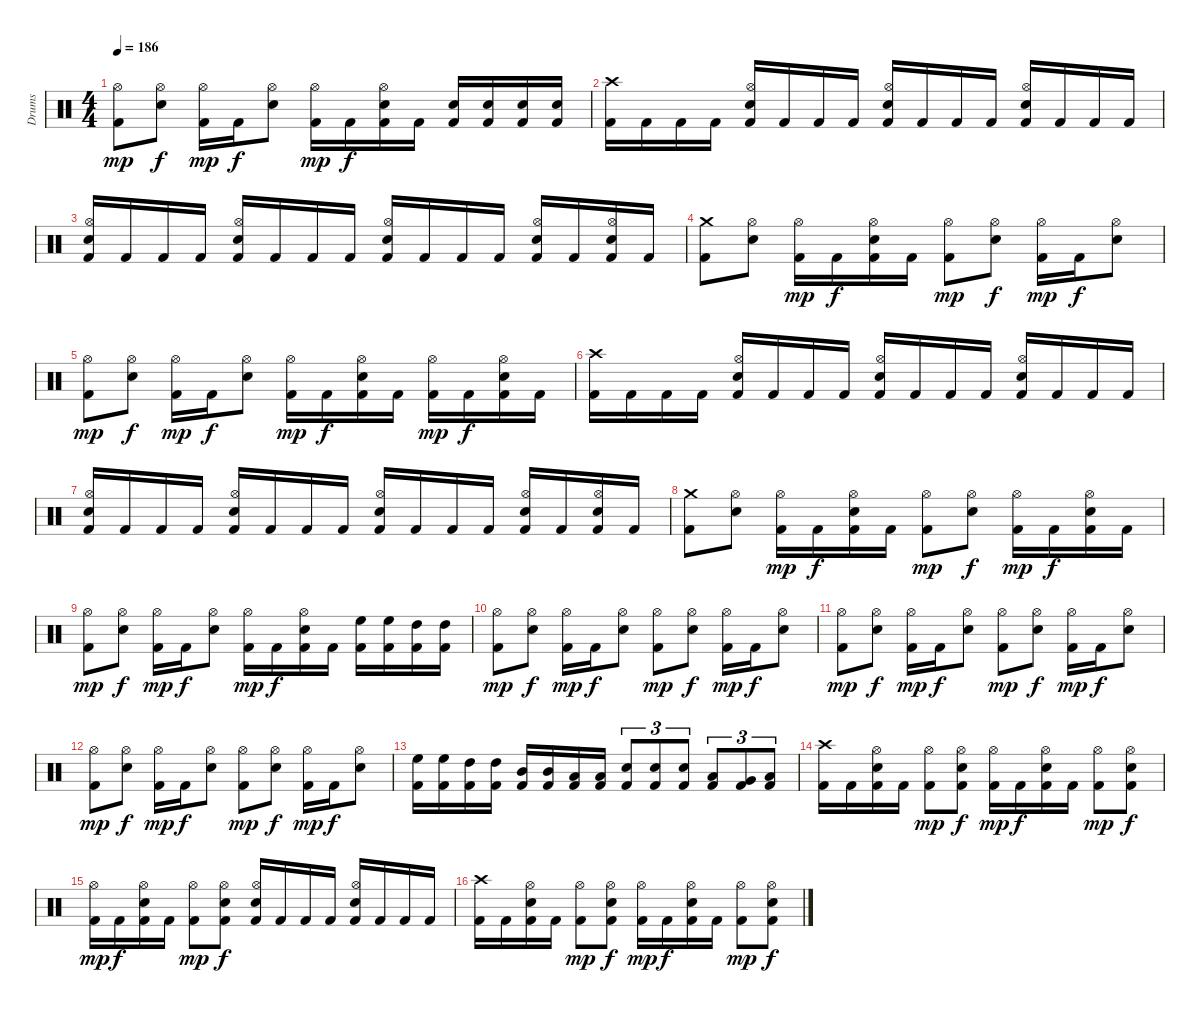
\track ("Drums" "Drums") {instrument percussion}
\staff {score}
\articulation defaults
\ts (4 4)
\tempo 186
\clef neutral
\ks c
("Kick (hit) 2" "Hi-Hat (open)").8{dy mp} ("Snare (hit) 2" "Hi-Hat (open)").8{dy f} ("Kick (hit) 2" "Hi-Hat (open)").16{dy mp} "Kick (hit) 2".16{dy f} ("Snare (hit) 2" "Hi-Hat (open)").8 ("Kick (hit) 2" "Hi-Hat (open)").16{dy mp} "Kick (hit) 2".16{dy f} ("Kick (hit) 2" "Snare (hit) 2" "Hi-Hat (open)").16 "Kick (hit) 2".16 ("Kick (hit) 2" "Snare (hit) 2").16 ("Kick (hit) 2" "Snare (hit) 2").16 ("Kick (hit) 2" "Snare (hit) 2").16 ("Kick (hit) 2" "Snare (hit) 2").16 |
\section ("" "")
("Kick (hit) 2" "Crash high (hit)").16 "Kick (hit) 2".16 "Kick (hit) 2".16 "Kick (hit) 2".16 ("Kick (hit) 2" "Snare (hit) 2" "Hi-Hat (open)").16 "Kick (hit) 2".16 "Kick (hit) 2".16 "Kick (hit) 2".16 ("Kick (hit) 2" "Snare (hit) 2" "Hi-Hat (open)").16 "Kick (hit) 2".16 "Kick (hit) 2".16 "Kick (hit) 2".16 ("Kick (hit) 2" "Snare (hit) 2" "Hi-Hat (open)").16 "Kick (hit) 2".16 "Kick (hit) 2".16 "Kick (hit) 2".16 |
("Kick (hit) 2" "Snare (hit) 2" "Hi-Hat (open)").16 "Kick (hit) 2".16 "Kick (hit) 2".16 "Kick (hit) 2".16 ("Kick (hit) 2" "Snare (hit) 2" "Hi-Hat (open)").16 "Kick (hit) 2".16 "Kick (hit) 2".16 "Kick (hit) 2".16 ("Kick (hit) 2" "Snare (hit) 2" "Hi-Hat (open)").16 "Kick (hit) 2".16 "Kick (hit) 2".16 "Kick (hit) 2".16 ("Kick (hit) 2" "Snare (hit) 2" "Hi-Hat (open)").16 "Kick (hit) 2".16 ("Kick (hit) 2" "Snare (hit) 2" "Hi-Hat (open)").16 "Kick (hit) 2".16 |
("Kick (hit) 2" "Crash medium (hit)").8 ("Snare (hit) 2" "Hi-Hat (open)").8 ("Kick (hit) 2" "Hi-Hat (open)").16{dy mp} "Kick (hit) 2".16{dy f} ("Kick (hit) 2" "Snare (hit) 2" "Hi-Hat (open)").16 "Kick (hit) 2".16 ("Kick (hit) 2" "Hi-Hat (open)").8{dy mp} ("Snare (hit) 2" "Hi-Hat (open)").8{dy f} ("Kick (hit) 2" "Hi-Hat (open)").16{dy mp} "Kick (hit) 2".16{dy f} ("Snare (hit) 2" "Hi-Hat (open)").8 |
("Kick (hit) 2" "Hi-Hat (open)").8{dy mp} ("Snare (hit) 2" "Hi-Hat (open)").8{dy f} ("Kick (hit) 2" "Hi-Hat (open)").16{dy mp} "Kick (hit) 2".16{dy f} ("Snare (hit) 2" "Hi-Hat (open)").8 ("Kick (hit) 2" "Hi-Hat (open)").16{dy mp} "Kick (hit) 2".16{dy f} ("Kick (hit) 2" "Snare (hit) 2" "Hi-Hat (open)").16 "Kick (hit) 2".16 ("Kick (hit) 2" "Hi-Hat (open)").16{dy mp} "Kick (hit) 2".16{dy f} ("Kick (hit) 2" "Snare (hit) 2" "Hi-Hat (open)").16 "Kick (hit) 2".16 |
\section ("" "")
("Kick (hit) 2" "Crash high (hit)").16 "Kick (hit) 2".16 "Kick (hit) 2".16 "Kick (hit) 2".16 ("Kick (hit) 2" "Snare (hit) 2" "Hi-Hat (open)").16 "Kick (hit) 2".16 "Kick (hit) 2".16 "Kick (hit) 2".16 ("Kick (hit) 2" "Snare (hit) 2" "Hi-Hat (open)").16 "Kick (hit) 2".16 "Kick (hit) 2".16 "Kick (hit) 2".16 ("Kick (hit) 2" "Snare (hit) 2" "Hi-Hat (open)").16 "Kick (hit) 2".16 "Kick (hit) 2".16 "Kick (hit) 2".16 |
("Kick (hit) 2" "Snare (hit) 2" "Hi-Hat (open)").16 "Kick (hit) 2".16 "Kick (hit) 2".16 "Kick (hit) 2".16 ("Kick (hit) 2" "Snare (hit) 2" "Hi-Hat (open)").16 "Kick (hit) 2".16 "Kick (hit) 2".16 "Kick (hit) 2".16 ("Kick (hit) 2" "Snare (hit) 2" "Hi-Hat (open)").16 "Kick (hit) 2".16 "Kick (hit) 2".16 "Kick (hit) 2".16 ("Kick (hit) 2" "Snare (hit) 2" "Hi-Hat (open)").16 "Kick (hit) 2".16 ("Kick (hit) 2" "Snare (hit) 2" "Hi-Hat (open)").16 "Kick (hit) 2".16 |
("Kick (hit) 2" "Crash medium (hit)").8 ("Snare (hit) 2" "Hi-Hat (open)").8 ("Kick (hit) 2" "Hi-Hat (open)").16{dy mp} "Kick (hit) 2".16{dy f} ("Kick (hit) 2" "Snare (hit) 2" "Hi-Hat (open)").16 "Kick (hit) 2".16 ("Kick (hit) 2" "Hi-Hat (open)").8{dy mp} ("Snare (hit) 2" "Hi-Hat (open)").8{dy f} ("Kick (hit) 2" "Hi-Hat (open)").16{dy mp} "Kick (hit) 2".16{dy f} ("Kick (hit) 2" "Snare (hit) 2" "Hi-Hat (open)").16 "Kick (hit) 2".16 |
("Kick (hit) 2" "Hi-Hat (open)").8{dy mp} ("Snare (hit) 2" "Hi-Hat (open)").8{dy f} ("Kick (hit) 2" "Hi-Hat (open)").16{dy mp} "Kick (hit) 2".16{dy f} ("Snare (hit) 2" "Hi-Hat (open)").8 ("Kick (hit) 2" "Hi-Hat (open)").16{dy mp} "Kick (hit) 2".16{dy f} ("Kick (hit) 2" "Snare (hit) 2" "Hi-Hat (open)").16 "Kick (hit) 2".16 ("Kick (hit) 2" "High Floor Tom (hit)").16 ("Kick (hit) 2" "High Floor Tom (hit)").16 ("Kick (hit) 2" "High Tom (hit)").16 ("Kick (hit) 2" "High Tom (hit)").16 |
\section ("" "")
("Kick (hit) 2" "Hi-Hat (open)").8{dy mp} ("Snare (hit) 2" "Hi-Hat (open)").8{dy f} ("Kick (hit) 2" "Hi-Hat (open)").16{dy mp} "Kick (hit) 2".16{dy f} ("Snare (hit) 2" "Hi-Hat (open)").8 ("Kick (hit) 2" "Hi-Hat (open)").8{dy mp} ("Snare (hit) 2" "Hi-Hat (open)").8{dy f} ("Kick (hit) 2" "Hi-Hat (open)").16{dy mp} "Kick (hit) 2".16{dy f} ("Snare (hit) 2" "Hi-Hat (open)").8 |
("Kick (hit) 2" "Hi-Hat (open)").8{dy mp} ("Snare (hit) 2" "Hi-Hat (open)").8{dy f} ("Kick (hit) 2" "Hi-Hat (open)").16{dy mp} "Kick (hit) 2".16{dy f} ("Snare (hit) 2" "Hi-Hat (open)").8 ("Kick (hit) 2" "Hi-Hat (open)").8{dy mp} ("Snare (hit) 2" "Hi-Hat (open)").8{dy f} ("Kick (hit) 2" "Hi-Hat (open)").16{dy mp} "Kick (hit) 2".16{dy f} ("Snare (hit) 2" "Hi-Hat (open)").8 |
("Kick (hit) 2" "Hi-Hat (open)").8{dy mp} ("Snare (hit) 2" "Hi-Hat (open)").8{dy f} ("Kick (hit) 2" "Hi-Hat (open)").16{dy mp} "Kick (hit) 2".16{dy f} ("Snare (hit) 2" "Hi-Hat (open)").8 ("Kick (hit) 2" "Hi-Hat (open)").8{dy mp} ("Snare (hit) 2" "Hi-Hat (open)").8{dy f} ("Kick (hit) 2" "Hi-Hat (open)").16{dy mp} "Kick (hit) 2".16{dy f} ("Snare (hit) 2" "Hi-Hat (open)").8 |
("Kick (hit) 2" "High Floor Tom (hit)").16 ("Kick (hit) 2" "High Floor Tom (hit)").16 ("Kick (hit) 2" "High Tom (hit)").16 ("Kick (hit) 2" "High Tom (hit)").16 ("Kick (hit) 2" "Mid Tom (hit)").16 ("Kick (hit) 2" "Mid Tom (hit)").16 ("Kick (hit) 2" "Low Tom (hit)").16 ("Kick (hit) 2" "Low Tom (hit)").16 ("Kick (hit) 2" "Snare (hit) 2").8{tu (3 2)} ("Kick (hit) 2" "Snare (hit) 2").8{tu (3 2)} ("Kick (hit) 2" "Snare (hit) 2").8{tu (3 2)} ("Kick (hit) 2" "Low Tom (hit)").8{tu (3 2)} ("Kick (hit) 2" "Very Low Tom (hit)").8{tu (3 2)} ("Kick (hit) 2" "Low Floor Tom (hit)").8{tu (3 2)} |
("Kick (hit) 2" "Crash high (hit)").16 "Kick (hit) 2".16 ("Kick (hit) 2" "Snare (hit) 2" "Hi-Hat (open)").16 "Kick (hit) 2".16 ("Kick (hit) 2" "Hi-Hat (open)").8{dy mp} ("Kick (hit) 2" "Snare (hit) 2" "Hi-Hat (open)").8{dy f} ("Kick (hit) 2" "Hi-Hat (open)").16{dy mp} "Kick (hit) 2".16{dy f} ("Kick (hit) 2" "Snare (hit) 2" "Hi-Hat (open)").16 "Kick (hit) 2".16 ("Kick (hit) 2" "Hi-Hat (open)").8{dy mp} ("Kick (hit) 2" "Snare (hit) 2" "Hi-Hat (open)").8{dy f} |
("Kick (hit) 2" "Hi-Hat (open)").16{dy mp} "Kick (hit) 2".16{dy f} ("Kick (hit) 2" "Snare (hit) 2" "Hi-Hat (open)").16 "Kick (hit) 2".16 ("Kick (hit) 2" "Hi-Hat (open)").8{dy mp} ("Kick (hit) 2" "Snare (hit) 2" "Hi-Hat (open)").8{dy f} ("Kick (hit) 2" "Snare (hit) 2" "Hi-Hat (open)").16 "Kick (hit) 2".16 "Kick (hit) 2".16 "Kick (hit) 2".16 ("Kick (hit) 2" "Snare (hit) 2" "Hi-Hat (open)").16 "Kick (hit) 2".16 "Kick (hit) 2".16 "Kick (hit) 2".16 |
("Kick (hit) 2" "Crash high (hit)").16 "Kick (hit) 2".16 ("Kick (hit) 2" "Snare (hit) 2" "Hi-Hat (open)").16 "Kick (hit) 2".16 ("Kick (hit) 2" "Hi-Hat (open)").8{dy mp} ("Kick (hit) 2" "Snare (hit) 2" "Hi-Hat (open)").8{dy f} ("Kick (hit) 2" "Hi-Hat (open)").16{dy mp} "Kick (hit) 2".16{dy f} ("Kick (hit) 2" "Snare (hit) 2" "Hi-Hat (open)").16 "Kick (hit) 2".16 ("Kick (hit) 2" "Hi-Hat (open)").8{dy mp} ("Kick (hit) 2" "Snare (hit) 2" "Hi-Hat (open)").8{dy f}
